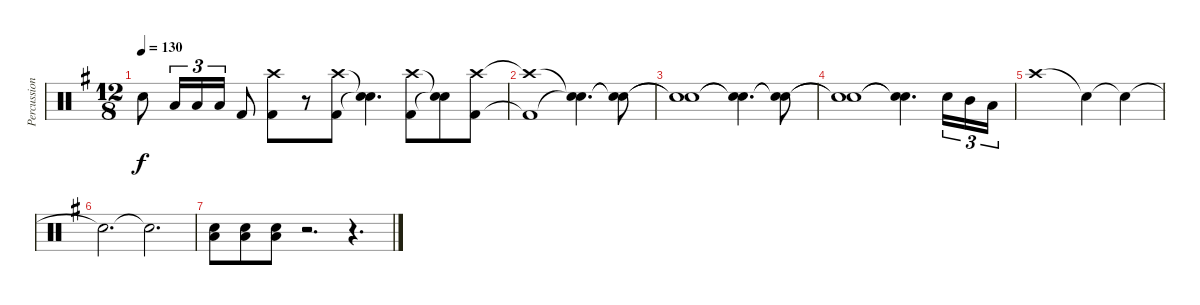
\track ("Percussion" "Percussion") {instrument percussion}
\staff {score}
\articulation defaults
\ts (12 8)
\tempo 130
\clef neutral
\ks g "Snare (hit) 2".8{dy f} "Low Tom (hit)".16{tu (3 2)} "Low Tom (hit)".16{tu (3 2)} "Low Tom (hit)".16{tu (3 2)} "Kick (hit) 2".8
("Crash high (hit)" "Kick (hit) 2").8 r.8 ("Crash high (hit)" "Kick (hit) 2").8 ("Snare (hit)"{t} "Snare (hit)"{t}).4{d} ("Crash high (hit)" "Kick (hit) 2").8 ("Snare (hit)"{t} "Snare (hit)"{t}).8 ("Crash high (hit)" "Kick (hit) 2").8 |
("Crash high (hit)"{t} "Kick (hit) 2"{t}).1 ("Snare (hit)"{t} "Snare (hit)"{t}).4{d} ("Snare (hit)"{t} "Snare (hit)"{t}).8 |
("Snare (hit)"{t} "Snare (hit)"{t}).1 ("Snare (hit)"{t} "Snare (hit)"{t}).4{d} ("Snare (hit)"{t} "Snare (hit)"{t}).8 |
("Snare (hit)"{t} "Snare (hit)"{t}).1 ("Snare (hit)"{t} "Snare (hit)"{t}).4{d} "Snare (hit) 2".16{tu (3 2)} "Mid Tom (hit)".16{tu (3 2)} "Low Tom (hit)".16{tu (3 2)} |
"Crash high (hit)".1 "Snare (hit)"{t}.4 "Snare (hit)"{t}.4 |
"Snare (hit)"{t}.2{d} "Snare (hit)"{t}.2{d} |
("Low Tom (hit)" "Snare (hit) 2").8 ("Low Tom (hit)" "Snare (hit) 2").8 ("Low Tom (hit)" "Snare (hit) 2").8 r.2{d} r.4{d}
